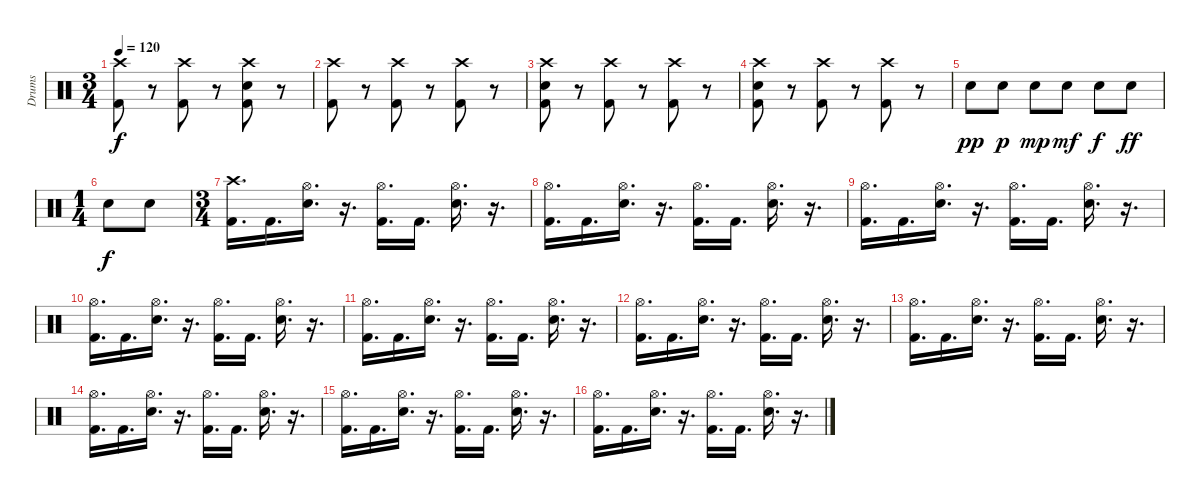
\track ("Drums" "Drums") {instrument percussion}
\staff {score}
\articulation defaults
\ts (3 4)
\tempo 120
\clef neutral
\ks c
("Crash high (hit)" "Kick (hit) 2").8{dy f} r.8 ("Crash high (hit)" "Kick (hit) 2").8 r.8 ("Crash high (hit)" "Electric Snare (hit)" "Kick (hit) 2").8 r.8 |
("Crash high (hit)" "Kick (hit) 2").8 r.8 ("Crash high (hit)" "Kick (hit) 2").8 r.8 ("Crash high (hit)" "Kick (hit) 2").8 r.8 |
("Crash high (hit)" "Electric Snare (hit)" "Kick (hit) 2").8 r.8 ("Crash high (hit)" "Kick (hit) 2").8 r.8 ("Crash high (hit)" "Kick (hit) 2").8 r.8 |
("Crash high (hit)" "Electric Snare (hit)" "Kick (hit) 2").8 r.8 ("Crash high (hit)" "Kick (hit) 2").8 r.8 ("Crash high (hit)" "Kick (hit) 2").8 r.8 |
"Electric Snare (hit)".8{dy pp} "Electric Snare (hit)".8{dy p} "Electric Snare (hit)".8{dy mp} "Electric Snare (hit)".8{dy mf} "Electric Snare (hit)".8{dy f} "Electric Snare (hit)".8{dy ff} |
\ts (1 4)
"Electric Snare (hit)".8{dy f} "Electric Snare (hit)".8 |
\ts (3 4)
("Crash high (hit)" "Kick (hit) 2").16{d} "Kick (hit) 2".16{d} ("Hi-Hat (open)" "Electric Snare (hit)").16{d} r.16{d} ("Hi-Hat (open)" "Kick (hit) 2").16{d} "Kick (hit) 2".16{d} ("Hi-Hat (open)" "Electric Snare (hit)").16{d} r.16{d} |
("Hi-Hat (open)" "Kick (hit) 2").16{d} "Kick (hit) 2".16{d} ("Hi-Hat (open)" "Electric Snare (hit)").16{d} r.16{d} ("Hi-Hat (open)" "Kick (hit) 2").16{d} "Kick (hit) 2".16{d} ("Hi-Hat (open)" "Electric Snare (hit)").16{d} r.16{d} |
("Hi-Hat (open)" "Kick (hit) 2").16{d} "Kick (hit) 2".16{d} ("Hi-Hat (open)" "Electric Snare (hit)").16{d} r.16{d} ("Hi-Hat (open)" "Kick (hit) 2").16{d} "Kick (hit) 2".16{d} ("Hi-Hat (open)" "Electric Snare (hit)").16{d} r.16{d} |
("Hi-Hat (open)" "Kick (hit) 2").16{d} "Kick (hit) 2".16{d} ("Hi-Hat (open)" "Electric Snare (hit)").16{d} r.16{d} ("Hi-Hat (open)" "Kick (hit) 2").16{d} "Kick (hit) 2".16{d} ("Hi-Hat (open)" "Electric Snare (hit)").16{d} r.16{d} |
("Hi-Hat (open)" "Kick (hit) 2").16{d} "Kick (hit) 2".16{d} ("Hi-Hat (open)" "Electric Snare (hit)").16{d} r.16{d} ("Hi-Hat (open)" "Kick (hit) 2").16{d} "Kick (hit) 2".16{d} ("Hi-Hat (open)" "Electric Snare (hit)").16{d} r.16{d} |
("Hi-Hat (open)" "Kick (hit) 2").16{d} "Kick (hit) 2".16{d} ("Hi-Hat (open)" "Electric Snare (hit)").16{d} r.16{d} ("Hi-Hat (open)" "Kick (hit) 2").16{d} "Kick (hit) 2".16{d} ("Hi-Hat (open)" "Electric Snare (hit)").16{d} r.16{d} |
("Hi-Hat (open)" "Kick (hit) 2").16{d} "Kick (hit) 2".16{d} ("Hi-Hat (open)" "Electric Snare (hit)").16{d} r.16{d} ("Hi-Hat (open)" "Kick (hit) 2").16{d} "Kick (hit) 2".16{d} ("Hi-Hat (open)" "Electric Snare (hit)").16{d} r.16{d} |
("Hi-Hat (open)" "Kick (hit) 2").16{d} "Kick (hit) 2".16{d} ("Hi-Hat (open)" "Electric Snare (hit)").16{d} r.16{d} ("Hi-Hat (open)" "Kick (hit) 2").16{d} "Kick (hit) 2".16{d} ("Hi-Hat (open)" "Electric Snare (hit)").16{d} r.16{d} |
("Hi-Hat (open)" "Kick (hit) 2").16{d} "Kick (hit) 2".16{d} ("Hi-Hat (open)" "Electric Snare (hit)").16{d} r.16{d} ("Hi-Hat (open)" "Kick (hit) 2").16{d} "Kick (hit) 2".16{d} ("Hi-Hat (open)" "Electric Snare (hit)").16{d} r.16{d} |
("Hi-Hat (open)" "Kick (hit) 2").16{d} "Kick (hit) 2".16{d} ("Hi-Hat (open)" "Electric Snare (hit)").16{d} r.16{d} ("Hi-Hat (open)" "Kick (hit) 2").16{d} "Kick (hit) 2".16{d} ("Hi-Hat (open)" "Electric Snare (hit)").16{d} r.16{d}
